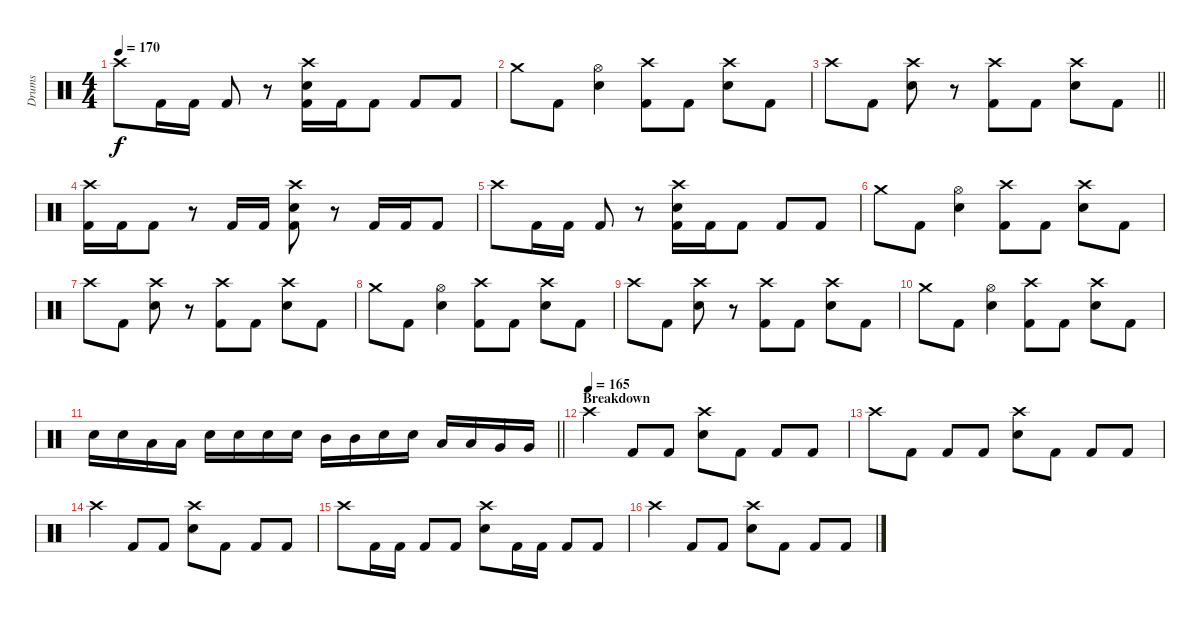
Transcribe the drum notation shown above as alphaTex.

\track ("Drums" "Drums") {instrument percussion}
\staff {score}
\articulation defaults
\ts (4 4)
\tempo 170
\clef neutral
\ks c "Crash high (hit)".8{dy f} "Kick (hit) 2".16 "Kick (hit) 2".16 "Kick (hit) 2".8
r.8 ("Crash high (hit)" "Snare (hit) 2" "Kick (hit) 2").16 "Kick (hit) 2".16 "Kick (hit) 2".8 "Kick (hit) 2".8 "Kick (hit) 2".8 |
"Crash medium (hit)".8 "Kick (hit) 2".8 ("Hi-Hat (open)" "Snare (hit) 2").4 ("Crash high (hit)" "Kick (hit) 2").8 "Kick (hit) 2".8 ("Crash high (hit)" "Snare (hit) 2").8 "Kick (hit) 2".8 |
\barLineRight lightlight "Crash high (hit)".8 "Kick (hit) 2".8
("Crash high (hit)" "Snare (hit) 2").8 r.8 ("Crash high (hit)" "Kick (hit) 2").8 "Kick (hit) 2".8 ("Crash high (hit)" "Snare (hit) 2").8 "Kick (hit) 2".8 |
("Crash high (hit)" "Kick (hit) 2").16 "Kick (hit) 2".16 "Kick (hit) 2".8 r.8 "Kick (hit) 2".16 "Kick (hit) 2".16 ("Crash high (hit)" "Snare (hit) 2" "Kick (hit) 2").8 r.8 "Kick (hit) 2".16 "Kick (hit) 2".16 "Kick (hit) 2".8 |
"Crash high (hit)".8 "Kick (hit) 2".16 "Kick (hit) 2".16 "Kick (hit) 2".8 r.8 ("Crash high (hit)" "Snare (hit) 2" "Kick (hit) 2").16 "Kick (hit) 2".16 "Kick (hit) 2".8 "Kick (hit) 2".8 "Kick (hit) 2".8 |
"Crash medium (hit)".8 "Kick (hit) 2".8 ("Hi-Hat (open)" "Snare (hit) 2").4 ("Crash high (hit)" "Kick (hit) 2").8 "Kick (hit) 2".8 ("Crash high (hit)" "Snare (hit) 2").8 "Kick (hit) 2".8 |
"Crash high (hit)".8 "Kick (hit) 2".8 ("Crash high (hit)" "Snare (hit) 2").8 r.8 ("Crash high (hit)" "Kick (hit) 2").8 "Kick (hit) 2".8 ("Crash high (hit)" "Snare (hit) 2").8 "Kick (hit) 2".8 |
"Crash medium (hit)".8 "Kick (hit) 2".8 ("Hi-Hat (open)" "Snare (hit) 2").4 ("Crash high (hit)" "Kick (hit) 2").8 "Kick (hit) 2".8 ("Crash high (hit)" "Snare (hit) 2").8 "Kick (hit) 2".8 |
"Crash high (hit)".8 "Kick (hit) 2".8 ("Crash high (hit)" "Snare (hit) 2").8 r.8 ("Crash high (hit)" "Kick (hit) 2").8 "Kick (hit) 2".8 ("Crash high (hit)" "Snare (hit) 2").8 "Kick (hit) 2".8 |
"Crash medium (hit)".8 "Kick (hit) 2".8 ("Hi-Hat (open)" "Snare (hit) 2").4 ("Crash high (hit)" "Kick (hit) 2").8 "Kick (hit) 2".8 ("Crash high (hit)" "Snare (hit) 2").8 "Kick (hit) 2".8 |
\barLineRight lightlight "Snare (hit) 2".16 "Snare (hit) 2".16 "Low Tom (hit)".16 "Low Tom (hit)".16 "Snare (hit) 2".16 "Snare (hit) 2".16 "Snare (hit) 2".16 "Snare (hit) 2".16 "Mid Tom (hit)".16 "Mid Tom (hit)".16 "Snare (hit) 2".16 "Snare (hit) 2".16 "Low Tom (hit)".16 "Low Tom (hit)".16 "Very Low Tom (hit)".16 "Very Low Tom (hit)".16
|
\section ("" "Breakdown")
\tempo (165)
"Crash high (hit)".4 "Kick (hit) 2".8 "Kick (hit) 2".8 ("Crash high (hit)" "Snare (hit) 2").8 "Kick (hit) 2".8 "Kick (hit) 2".8 "Kick (hit) 2".8 |
"Crash high (hit)".8 "Kick (hit) 2".8 "Kick (hit) 2".8 "Kick (hit) 2".8 ("Crash high (hit)" "Snare (hit) 2").8 "Kick (hit) 2".8 "Kick (hit) 2".8 "Kick (hit) 2".8 |
"Crash high (hit)".4 "Kick (hit) 2".8 "Kick (hit) 2".8 ("Crash high (hit)" "Snare (hit) 2").8 "Kick (hit) 2".8 "Kick (hit) 2".8 "Kick (hit) 2".8 |
"Crash high (hit)".8 "Kick (hit) 2".16 "Kick (hit) 2".16 "Kick (hit) 2".8 "Kick (hit) 2".8 ("Crash high (hit)" "Snare (hit) 2").8 "Kick (hit) 2".16 "Kick (hit) 2".16 "Kick (hit) 2".8 "Kick (hit) 2".8 |
"Crash high (hit)".4 "Kick (hit) 2".8 "Kick (hit) 2".8 ("Crash high (hit)" "Snare (hit) 2").8 "Kick (hit) 2".8 "Kick (hit) 2".8 "Kick (hit) 2".8
